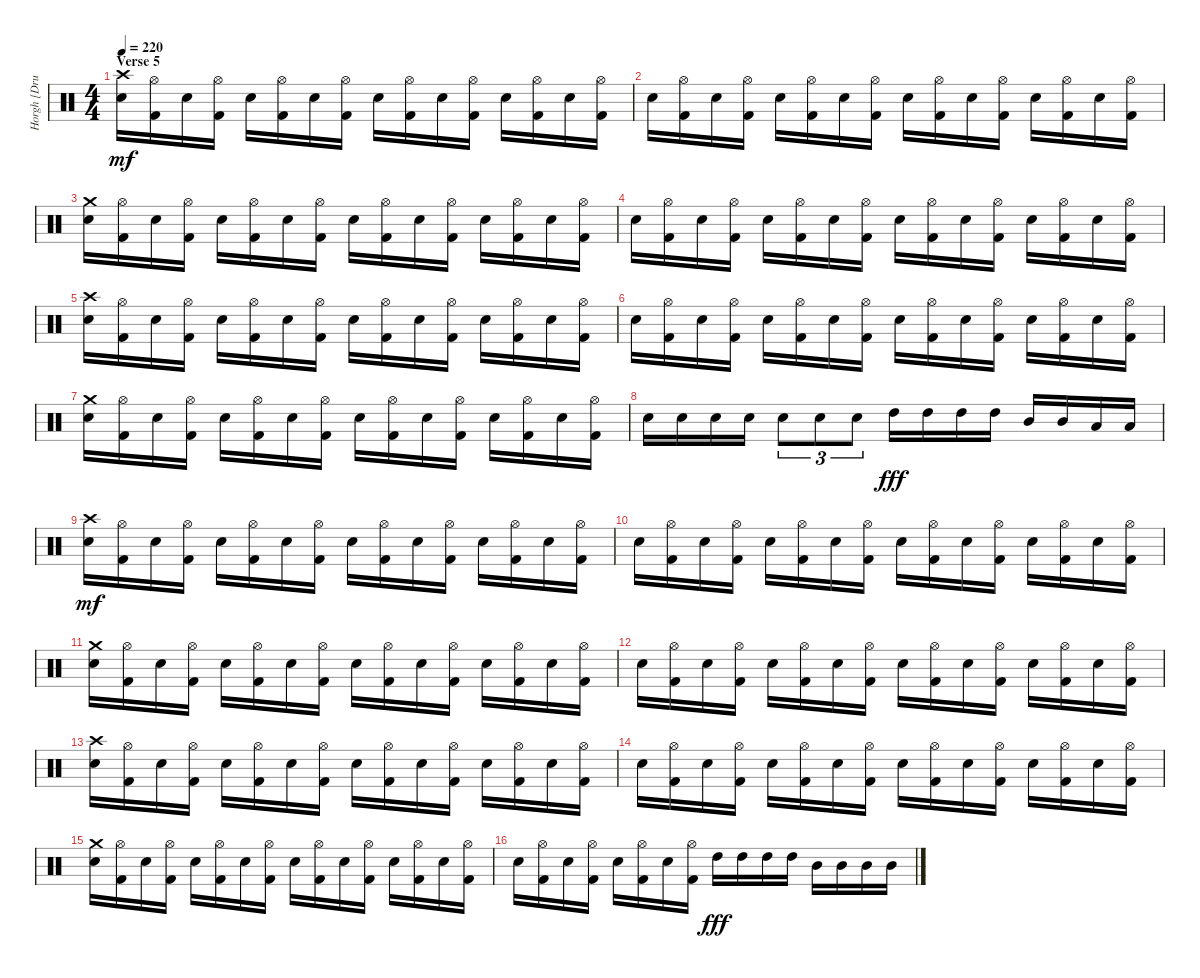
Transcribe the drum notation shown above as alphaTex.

\track ("Horgh [Drums]" "Horgh [Dru") {instrument percussion}
\staff {score}
\articulation defaults
\ts (4 4)
\section ("" "Verse 5")
\tempo 220
\clef neutral
\ks c
("Crash high (hit)" "Electric Snare (hit)").16{dy mf} ("Hi-Hat (open)" "Kick (hit) 2").16 "Electric Snare (hit)".16 ("Hi-Hat (open)" "Kick (hit) 2").16 "Electric Snare (hit)".16 ("Hi-Hat (open)" "Kick (hit) 2").16 "Electric Snare (hit)".16 ("Hi-Hat (open)" "Kick (hit) 2").16 "Electric Snare (hit)".16 ("Hi-Hat (open)" "Kick (hit) 2").16 "Electric Snare (hit)".16 ("Hi-Hat (open)" "Kick (hit) 2").16 "Electric Snare (hit)".16 ("Hi-Hat (open)" "Kick (hit) 2").16 "Electric Snare (hit)".16 ("Hi-Hat (open)" "Kick (hit) 2").16 |
"Electric Snare (hit)".16 ("Hi-Hat (open)" "Kick (hit) 2").16 "Electric Snare (hit)".16 ("Hi-Hat (open)" "Kick (hit) 2").16 "Electric Snare (hit)".16 ("Hi-Hat (open)" "Kick (hit) 2").16 "Electric Snare (hit)".16 ("Hi-Hat (open)" "Kick (hit) 2").16 "Electric Snare (hit)".16 ("Hi-Hat (open)" "Kick (hit) 2").16 "Electric Snare (hit)".16 ("Hi-Hat (open)" "Kick (hit) 2").16 "Electric Snare (hit)".16 ("Hi-Hat (open)" "Kick (hit) 2").16 "Electric Snare (hit)".16 ("Hi-Hat (open)" "Kick (hit) 2").16 |
("Crash medium (hit)" "Electric Snare (hit)").16 ("Hi-Hat (open)" "Kick (hit) 2").16 "Electric Snare (hit)".16 ("Hi-Hat (open)" "Kick (hit) 2").16 "Electric Snare (hit)".16 ("Hi-Hat (open)" "Kick (hit) 2").16 "Electric Snare (hit)".16 ("Hi-Hat (open)" "Kick (hit) 2").16 "Electric Snare (hit)".16 ("Hi-Hat (open)" "Kick (hit) 2").16 "Electric Snare (hit)".16 ("Hi-Hat (open)" "Kick (hit) 2").16 "Electric Snare (hit)".16 ("Hi-Hat (open)" "Kick (hit) 2").16 "Electric Snare (hit)".16 ("Hi-Hat (open)" "Kick (hit) 2").16 |
"Electric Snare (hit)".16 ("Hi-Hat (open)" "Kick (hit) 2").16 "Electric Snare (hit)".16 ("Hi-Hat (open)" "Kick (hit) 2").16 "Electric Snare (hit)".16 ("Hi-Hat (open)" "Kick (hit) 2").16 "Electric Snare (hit)".16 ("Hi-Hat (open)" "Kick (hit) 2").16 "Electric Snare (hit)".16 ("Hi-Hat (open)" "Kick (hit) 2").16 "Electric Snare (hit)".16 ("Hi-Hat (open)" "Kick (hit) 2").16 "Electric Snare (hit)".16 ("Hi-Hat (open)" "Kick (hit) 2").16 "Electric Snare (hit)".16 ("Hi-Hat (open)" "Kick (hit) 2").16 |
("Crash high (hit)" "Electric Snare (hit)").16 ("Hi-Hat (open)" "Kick (hit) 2").16 "Electric Snare (hit)".16 ("Hi-Hat (open)" "Kick (hit) 2").16 "Electric Snare (hit)".16 ("Hi-Hat (open)" "Kick (hit) 2").16 "Electric Snare (hit)".16 ("Hi-Hat (open)" "Kick (hit) 2").16 "Electric Snare (hit)".16 ("Hi-Hat (open)" "Kick (hit) 2").16 "Electric Snare (hit)".16 ("Hi-Hat (open)" "Kick (hit) 2").16 "Electric Snare (hit)".16 ("Hi-Hat (open)" "Kick (hit) 2").16 "Electric Snare (hit)".16 ("Hi-Hat (open)" "Kick (hit) 2").16 |
"Electric Snare (hit)".16 ("Hi-Hat (open)" "Kick (hit) 2").16 "Electric Snare (hit)".16 ("Hi-Hat (open)" "Kick (hit) 2").16 "Electric Snare (hit)".16 ("Hi-Hat (open)" "Kick (hit) 2").16 "Electric Snare (hit)".16 ("Hi-Hat (open)" "Kick (hit) 2").16 "Electric Snare (hit)".16 ("Hi-Hat (open)" "Kick (hit) 2").16 "Electric Snare (hit)".16 ("Hi-Hat (open)" "Kick (hit) 2").16 "Electric Snare (hit)".16 ("Hi-Hat (open)" "Kick (hit) 2").16 "Electric Snare (hit)".16 ("Hi-Hat (open)" "Kick (hit) 2").16 |
("Crash medium (hit)" "Electric Snare (hit)").16 ("Hi-Hat (open)" "Kick (hit) 2").16 "Electric Snare (hit)".16 ("Hi-Hat (open)" "Kick (hit) 2").16 "Electric Snare (hit)".16 ("Hi-Hat (open)" "Kick (hit) 2").16 "Electric Snare (hit)".16 ("Hi-Hat (open)" "Kick (hit) 2").16 "Electric Snare (hit)".16 ("Hi-Hat (open)" "Kick (hit) 2").16 "Electric Snare (hit)".16 ("Hi-Hat (open)" "Kick (hit) 2").16 "Electric Snare (hit)".16 ("Hi-Hat (open)" "Kick (hit) 2").16 "Electric Snare (hit)".16 ("Hi-Hat (open)" "Kick (hit) 2").16 |
"Electric Snare (hit)".16 "Electric Snare (hit)".16 "Electric Snare (hit)".16 "Electric Snare (hit)".16 "Electric Snare (hit)".8{tu (3 2)} "Electric Snare (hit)".8{tu (3 2)} "Electric Snare (hit)".8{tu (3 2)} "High Tom (hit)".16{dy fff} "High Tom (hit)".16 "High Tom (hit)".16 "High Tom (hit)".16 "Mid Tom (hit)".16 "Mid Tom (hit)".16 "Low Tom (hit)".16 "Low Tom (hit)".16 |
("Crash high (hit)" "Electric Snare (hit)").16{dy mf} ("Hi-Hat (open)" "Kick (hit) 2").16 "Electric Snare (hit)".16 ("Hi-Hat (open)" "Kick (hit) 2").16 "Electric Snare (hit)".16 ("Hi-Hat (open)" "Kick (hit) 2").16 "Electric Snare (hit)".16 ("Hi-Hat (open)" "Kick (hit) 2").16 "Electric Snare (hit)".16 ("Hi-Hat (open)" "Kick (hit) 2").16 "Electric Snare (hit)".16 ("Hi-Hat (open)" "Kick (hit) 2").16 "Electric Snare (hit)".16 ("Hi-Hat (open)" "Kick (hit) 2").16 "Electric Snare (hit)".16 ("Hi-Hat (open)" "Kick (hit) 2").16 |
"Electric Snare (hit)".16 ("Hi-Hat (open)" "Kick (hit) 2").16 "Electric Snare (hit)".16 ("Hi-Hat (open)" "Kick (hit) 2").16 "Electric Snare (hit)".16 ("Hi-Hat (open)" "Kick (hit) 2").16 "Electric Snare (hit)".16 ("Hi-Hat (open)" "Kick (hit) 2").16 "Electric Snare (hit)".16 ("Hi-Hat (open)" "Kick (hit) 2").16 "Electric Snare (hit)".16 ("Hi-Hat (open)" "Kick (hit) 2").16 "Electric Snare (hit)".16 ("Hi-Hat (open)" "Kick (hit) 2").16 "Electric Snare (hit)".16 ("Hi-Hat (open)" "Kick (hit) 2").16 |
("Crash medium (hit)" "Electric Snare (hit)").16 ("Hi-Hat (open)" "Kick (hit) 2").16 "Electric Snare (hit)".16 ("Hi-Hat (open)" "Kick (hit) 2").16 "Electric Snare (hit)".16 ("Hi-Hat (open)" "Kick (hit) 2").16 "Electric Snare (hit)".16 ("Hi-Hat (open)" "Kick (hit) 2").16 "Electric Snare (hit)".16 ("Hi-Hat (open)" "Kick (hit) 2").16 "Electric Snare (hit)".16 ("Hi-Hat (open)" "Kick (hit) 2").16 "Electric Snare (hit)".16 ("Hi-Hat (open)" "Kick (hit) 2").16 "Electric Snare (hit)".16 ("Hi-Hat (open)" "Kick (hit) 2").16 |
"Electric Snare (hit)".16 ("Hi-Hat (open)" "Kick (hit) 2").16 "Electric Snare (hit)".16 ("Hi-Hat (open)" "Kick (hit) 2").16 "Electric Snare (hit)".16 ("Hi-Hat (open)" "Kick (hit) 2").16 "Electric Snare (hit)".16 ("Hi-Hat (open)" "Kick (hit) 2").16 "Electric Snare (hit)".16 ("Hi-Hat (open)" "Kick (hit) 2").16 "Electric Snare (hit)".16 ("Hi-Hat (open)" "Kick (hit) 2").16 "Electric Snare (hit)".16 ("Hi-Hat (open)" "Kick (hit) 2").16 "Electric Snare (hit)".16 ("Hi-Hat (open)" "Kick (hit) 2").16 |
("Crash high (hit)" "Electric Snare (hit)").16 ("Hi-Hat (open)" "Kick (hit) 2").16 "Electric Snare (hit)".16 ("Hi-Hat (open)" "Kick (hit) 2").16 "Electric Snare (hit)".16 ("Hi-Hat (open)" "Kick (hit) 2").16 "Electric Snare (hit)".16 ("Hi-Hat (open)" "Kick (hit) 2").16 "Electric Snare (hit)".16 ("Hi-Hat (open)" "Kick (hit) 2").16 "Electric Snare (hit)".16 ("Hi-Hat (open)" "Kick (hit) 2").16 "Electric Snare (hit)".16 ("Hi-Hat (open)" "Kick (hit) 2").16 "Electric Snare (hit)".16 ("Hi-Hat (open)" "Kick (hit) 2").16 |
"Electric Snare (hit)".16 ("Hi-Hat (open)" "Kick (hit) 2").16 "Electric Snare (hit)".16 ("Hi-Hat (open)" "Kick (hit) 2").16 "Electric Snare (hit)".16 ("Hi-Hat (open)" "Kick (hit) 2").16 "Electric Snare (hit)".16 ("Hi-Hat (open)" "Kick (hit) 2").16 "Electric Snare (hit)".16 ("Hi-Hat (open)" "Kick (hit) 2").16 "Electric Snare (hit)".16 ("Hi-Hat (open)" "Kick (hit) 2").16 "Electric Snare (hit)".16 ("Hi-Hat (open)" "Kick (hit) 2").16 "Electric Snare (hit)".16 ("Hi-Hat (open)" "Kick (hit) 2").16 |
("Crash medium (hit)" "Electric Snare (hit)").16 ("Hi-Hat (open)" "Kick (hit) 2").16 "Electric Snare (hit)".16 ("Hi-Hat (open)" "Kick (hit) 2").16 "Electric Snare (hit)".16 ("Hi-Hat (open)" "Kick (hit) 2").16 "Electric Snare (hit)".16 ("Hi-Hat (open)" "Kick (hit) 2").16 "Electric Snare (hit)".16 ("Hi-Hat (open)" "Kick (hit) 2").16 "Electric Snare (hit)".16 ("Hi-Hat (open)" "Kick (hit) 2").16 "Electric Snare (hit)".16 ("Hi-Hat (open)" "Kick (hit) 2").16 "Electric Snare (hit)".16 ("Hi-Hat (open)" "Kick (hit) 2").16 |
"Electric Snare (hit)".16 ("Hi-Hat (open)" "Kick (hit) 2").16 "Electric Snare (hit)".16 ("Hi-Hat (open)" "Kick (hit) 2").16 "Electric Snare (hit)".16 ("Hi-Hat (open)" "Kick (hit) 2").16 "Electric Snare (hit)".16 ("Hi-Hat (open)" "Kick (hit) 2").16 "High Tom (hit)".16{dy fff} "High Tom (hit)".16 "High Tom (hit)".16 "High Tom (hit)".16 "Mid Tom (hit)".16 "Mid Tom (hit)".16 "Mid Tom (hit)".16 "Mid Tom (hit)".16
